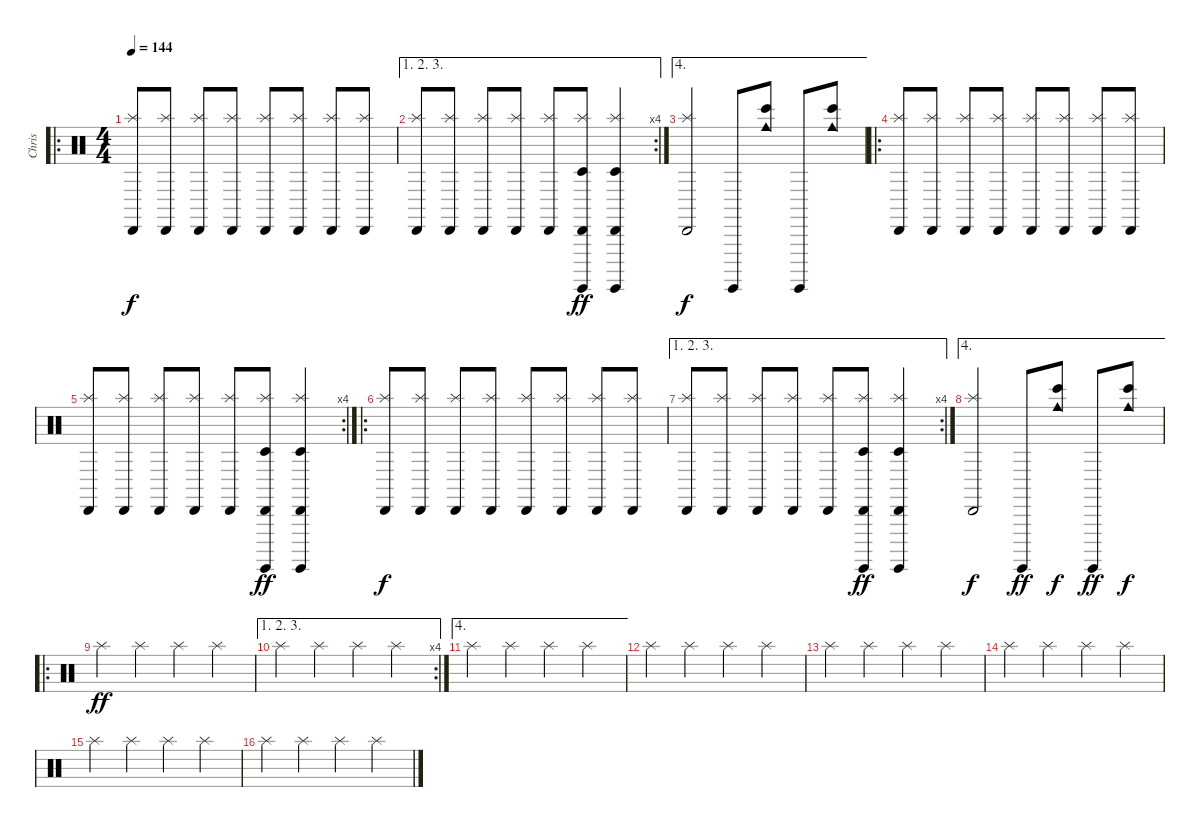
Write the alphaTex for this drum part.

\track ("Chris" "Chris") {instrument percussion}
\staff {score}
\articulation defaults
\ro
\ts (4 4)
\tempo 144
\clef neutral
\ks c
("Cabasa (hit)" "Splash (hit)").8{dy f} ("Cabasa (hit)" "Splash (hit)").8 ("Cabasa (hit)" "Splash (hit)").8 ("Cabasa (hit)" "Splash (hit)").8 ("Cabasa (hit)" "Splash (hit)").8 ("Cabasa (hit)" "Splash (hit)").8 ("Cabasa (hit)" "Splash (hit)").8 ("Cabasa (hit)" "Splash (hit)").8 |
\ae (1 2 3)
\rc 4
("Cabasa (hit)" "Splash (hit)").8 ("Cabasa (hit)" "Splash (hit)").8 ("Cabasa (hit)" "Splash (hit)").8 ("Cabasa (hit)" "Splash (hit)").8 ("Cabasa (hit)" "Splash (hit)").8 ("Cabasa (hit)" "Splash (hit)" "Timbale low (hit)" "Surdo (hit)").8{dy ff} ("Cabasa (hit)" "Splash (hit)" "Timbale low (hit)" "Surdo (hit)").4 |
\ae 4
("Cabasa (hit)" "Splash (hit)").2{dy f} "Surdo (hit)".8 ("Cowbell medium (hit)" "Bongo High (hit)").8 "Surdo (hit)".8 ("Cowbell medium (hit)" "Bongo High (hit)").8 |
\ro
("Cabasa (hit)" "Splash (hit)").8 ("Cabasa (hit)" "Splash (hit)").8 ("Cabasa (hit)" "Splash (hit)").8 ("Cabasa (hit)" "Splash (hit)").8 ("Cabasa (hit)" "Splash (hit)").8 ("Cabasa (hit)" "Splash (hit)").8 ("Cabasa (hit)" "Splash (hit)").8 ("Cabasa (hit)" "Splash (hit)").8 |
\rc 4
("Cabasa (hit)" "Splash (hit)").8 ("Cabasa (hit)" "Splash (hit)").8 ("Cabasa (hit)" "Splash (hit)").8 ("Cabasa (hit)" "Splash (hit)").8 ("Cabasa (hit)" "Splash (hit)").8 ("Cabasa (hit)" "Splash (hit)" "Timbale low (hit)" "Surdo (hit)").8{dy ff} ("Cabasa (hit)" "Splash (hit)" "Timbale low (hit)" "Surdo (hit)").4 |
\ro
("Cabasa (hit)" "Splash (hit)").8{dy f} ("Cabasa (hit)" "Splash (hit)").8 ("Cabasa (hit)" "Splash (hit)").8 ("Cabasa (hit)" "Splash (hit)").8 ("Cabasa (hit)" "Splash (hit)").8 ("Cabasa (hit)" "Splash (hit)").8 ("Cabasa (hit)" "Splash (hit)").8 ("Cabasa (hit)" "Splash (hit)").8 |
\ae (1 2 3)
\rc 4
("Cabasa (hit)" "Splash (hit)").8 ("Cabasa (hit)" "Splash (hit)").8 ("Cabasa (hit)" "Splash (hit)").8 ("Cabasa (hit)" "Splash (hit)").8 ("Cabasa (hit)" "Splash (hit)").8 ("Cabasa (hit)" "Splash (hit)" "Timbale low (hit)" "Surdo (hit)").8{dy ff} ("Cabasa (hit)" "Splash (hit)" "Timbale low (hit)" "Surdo (hit)").4 |
\ae 4
("Cabasa (hit)" "Splash (hit)").2{dy f} "Surdo (hit)".8{dy ff} ("Cowbell medium (hit)" "Bongo High (hit)").8{dy f} "Surdo (hit)".8{dy ff} ("Cowbell medium (hit)" "Bongo High (hit)").8{dy f} |
\ro "Splash (hit)".4{dy ff} "Splash (hit)".4 "Splash (hit)".4 "Splash (hit)".4
|
\ae (1 2 3)
\rc 4 "Splash (hit)".4 "Splash (hit)".4 "Splash (hit)".4 "Splash (hit)".4
|
\ae 4 "Splash (hit)".4 "Splash (hit)".4 "Splash (hit)".4 "Splash (hit)".4
|
"Splash (hit)".4 "Splash (hit)".4 "Splash (hit)".4 "Splash (hit)".4 |
"Splash (hit)".4 "Splash (hit)".4 "Splash (hit)".4 "Splash (hit)".4 |
"Splash (hit)".4 "Splash (hit)".4 "Splash (hit)".4 "Splash (hit)".4 |
"Splash (hit)".4 "Splash (hit)".4 "Splash (hit)".4 "Splash (hit)".4 |
"Splash (hit)".4 "Splash (hit)".4 "Splash (hit)".4 "Splash (hit)".4
